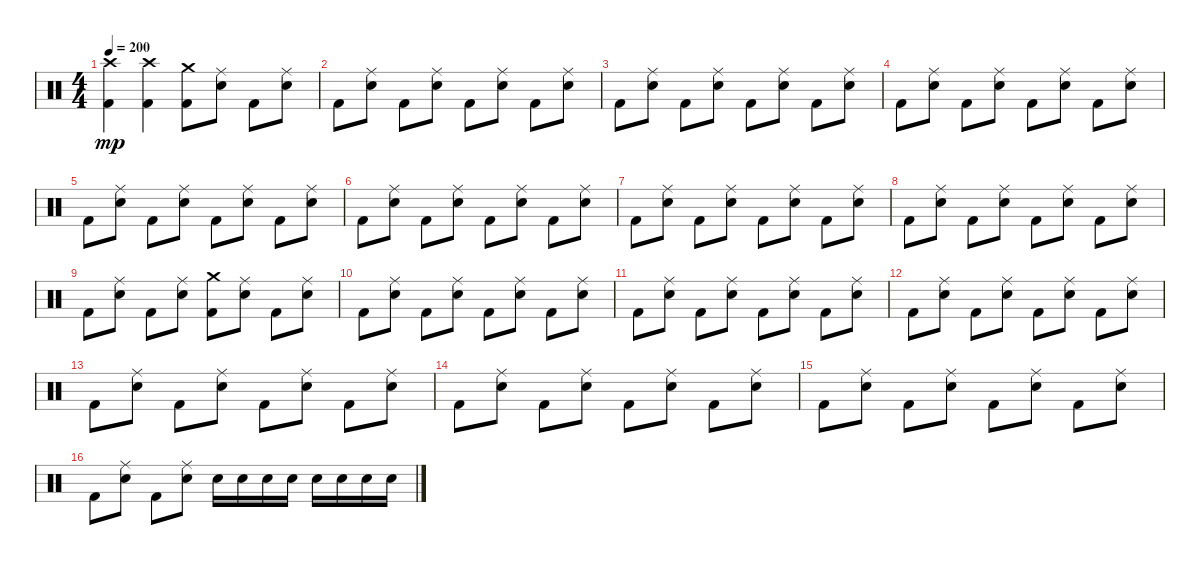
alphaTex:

\track "" {instrument percussion}
\staff {score}
\articulation defaults
\ts (4 4)
\tempo 200
\clef neutral
\ks c
("Kick (hit) 2" "Crash high (hit)").4{dy mp} ("Kick (hit) 2" "Crash high (hit)").4 ("Kick (hit) 2" "Crash medium (hit)").8 ("Electric Snare (hit)" "Ride (middle)").8 "Kick (hit) 2".8 ("Electric Snare (hit)" "Ride (middle)").8 |
"Kick (hit) 2".8 ("Electric Snare (hit)" "Ride (middle)").8 "Kick (hit) 2".8 ("Electric Snare (hit)" "Ride (middle)").8 "Kick (hit) 2".8 ("Electric Snare (hit)" "Ride (middle)").8 "Kick (hit) 2".8 ("Electric Snare (hit)" "Ride (middle)").8 |
"Kick (hit) 2".8 ("Electric Snare (hit)" "Ride (middle)").8 "Kick (hit) 2".8 ("Electric Snare (hit)" "Ride (middle)").8 "Kick (hit) 2".8 ("Electric Snare (hit)" "Ride (middle)").8 "Kick (hit) 2".8 ("Electric Snare (hit)" "Ride (middle)").8 |
"Kick (hit) 2".8 ("Electric Snare (hit)" "Ride (middle)").8 "Kick (hit) 2".8 ("Electric Snare (hit)" "Ride (middle)").8 "Kick (hit) 2".8 ("Electric Snare (hit)" "Ride (middle)").8 "Kick (hit) 2".8 ("Electric Snare (hit)" "Ride (middle)").8 |
"Kick (hit) 2".8 ("Electric Snare (hit)" "Ride (middle)").8 "Kick (hit) 2".8 ("Electric Snare (hit)" "Ride (middle)").8 "Kick (hit) 2".8 ("Electric Snare (hit)" "Ride (middle)").8 "Kick (hit) 2".8 ("Electric Snare (hit)" "Ride (middle)").8 |
"Kick (hit) 2".8 ("Electric Snare (hit)" "Ride (middle)").8 "Kick (hit) 2".8 ("Electric Snare (hit)" "Ride (middle)").8 "Kick (hit) 2".8 ("Electric Snare (hit)" "Ride (middle)").8 "Kick (hit) 2".8 ("Electric Snare (hit)" "Ride (middle)").8 |
"Kick (hit) 2".8 ("Electric Snare (hit)" "Ride (middle)").8 "Kick (hit) 2".8 ("Electric Snare (hit)" "Ride (middle)").8 "Kick (hit) 2".8 ("Electric Snare (hit)" "Ride (middle)").8 "Kick (hit) 2".8 ("Electric Snare (hit)" "Ride (middle)").8 |
"Kick (hit) 2".8 ("Electric Snare (hit)" "Ride (middle)").8 "Kick (hit) 2".8 ("Electric Snare (hit)" "Ride (middle)").8 "Kick (hit) 2".8 ("Electric Snare (hit)" "Ride (middle)").8 "Kick (hit) 2".8 ("Electric Snare (hit)" "Ride (middle)").8 |
"Kick (hit) 2".8 ("Electric Snare (hit)" "Ride (middle)").8 "Kick (hit) 2".8 ("Electric Snare (hit)" "Ride (middle)").8 ("Kick (hit) 2" "Crash medium (hit)").8 ("Electric Snare (hit)" "Ride (middle)").8 "Kick (hit) 2".8 ("Electric Snare (hit)" "Ride (middle)").8 |
"Kick (hit) 2".8 ("Electric Snare (hit)" "Ride (middle)").8 "Kick (hit) 2".8 ("Electric Snare (hit)" "Ride (middle)").8 "Kick (hit) 2".8 ("Electric Snare (hit)" "Ride (middle)").8 "Kick (hit) 2".8 ("Electric Snare (hit)" "Ride (middle)").8 |
"Kick (hit) 2".8 ("Electric Snare (hit)" "Ride (middle)").8 "Kick (hit) 2".8 ("Electric Snare (hit)" "Ride (middle)").8 "Kick (hit) 2".8 ("Electric Snare (hit)" "Ride (middle)").8 "Kick (hit) 2".8 ("Electric Snare (hit)" "Ride (middle)").8 |
"Kick (hit) 2".8 ("Electric Snare (hit)" "Ride (middle)").8 "Kick (hit) 2".8 ("Electric Snare (hit)" "Ride (middle)").8 "Kick (hit) 2".8 ("Electric Snare (hit)" "Ride (middle)").8 "Kick (hit) 2".8 ("Electric Snare (hit)" "Ride (middle)").8 |
"Kick (hit) 2".8 ("Electric Snare (hit)" "Ride (middle)").8 "Kick (hit) 2".8 ("Electric Snare (hit)" "Ride (middle)").8 "Kick (hit) 2".8 ("Electric Snare (hit)" "Ride (middle)").8 "Kick (hit) 2".8 ("Electric Snare (hit)" "Ride (middle)").8 |
"Kick (hit) 2".8 ("Electric Snare (hit)" "Ride (middle)").8 "Kick (hit) 2".8 ("Electric Snare (hit)" "Ride (middle)").8 "Kick (hit) 2".8 ("Electric Snare (hit)" "Ride (middle)").8 "Kick (hit) 2".8 ("Electric Snare (hit)" "Ride (middle)").8 |
"Kick (hit) 2".8 ("Electric Snare (hit)" "Ride (middle)").8 "Kick (hit) 2".8 ("Electric Snare (hit)" "Ride (middle)").8 "Kick (hit) 2".8 ("Electric Snare (hit)" "Ride (middle)").8 "Kick (hit) 2".8 ("Electric Snare (hit)" "Ride (middle)").8 |
"Kick (hit) 2".8 ("Electric Snare (hit)" "Ride (middle)").8 "Kick (hit) 2".8 ("Electric Snare (hit)" "Ride (middle)").8 "Electric Snare (hit)".16 "Electric Snare (hit)".16 "Electric Snare (hit)".16 "Electric Snare (hit)".16 "Electric Snare (hit)".16 "Electric Snare (hit)".16 "Electric Snare (hit)".16 "Electric Snare (hit)".16
